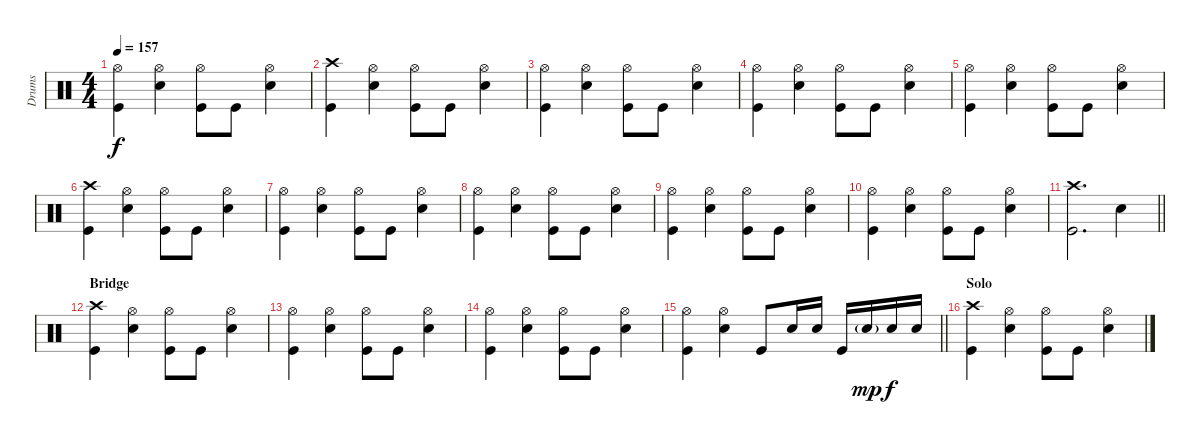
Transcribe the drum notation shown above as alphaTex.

\track ("Drums" "Drums") {instrument percussion}
\staff {score}
\articulation defaults
\ts (4 4)
\tempo 157
\clef neutral
\ks c
("Hi-Hat (open)" "Kick (hit)").4{dy f} ("Hi-Hat (open)" "Snare (hit) 2").4 ("Hi-Hat (open)" "Kick (hit)").8 "Kick (hit)".8 ("Hi-Hat (open)" "Snare (hit) 2").4 |
("Crash high (hit)" "Kick (hit)").4 ("Hi-Hat (open)" "Snare (hit) 2").4 ("Hi-Hat (open)" "Kick (hit)").8 "Kick (hit)".8 ("Hi-Hat (open)" "Snare (hit) 2").4 |
("Hi-Hat (open)" "Kick (hit)").4 ("Hi-Hat (open)" "Snare (hit) 2").4 ("Hi-Hat (open)" "Kick (hit)").8 "Kick (hit)".8 ("Hi-Hat (open)" "Snare (hit) 2").4 |
("Hi-Hat (open)" "Kick (hit)").4 ("Hi-Hat (open)" "Snare (hit) 2").4 ("Hi-Hat (open)" "Kick (hit)").8 "Kick (hit)".8 ("Hi-Hat (open)" "Snare (hit) 2").4 |
("Hi-Hat (open)" "Kick (hit)").4 ("Hi-Hat (open)" "Snare (hit) 2").4 ("Hi-Hat (open)" "Kick (hit)").8 "Kick (hit)".8 ("Hi-Hat (open)" "Snare (hit) 2").4 |
("Crash high (hit)" "Kick (hit)").4 ("Hi-Hat (open)" "Snare (hit) 2").4 ("Hi-Hat (open)" "Kick (hit)").8 "Kick (hit)".8 ("Hi-Hat (open)" "Snare (hit) 2").4 |
("Hi-Hat (open)" "Kick (hit)").4 ("Hi-Hat (open)" "Snare (hit) 2").4 ("Hi-Hat (open)" "Kick (hit)").8 "Kick (hit)".8 ("Hi-Hat (open)" "Snare (hit) 2").4 |
("Hi-Hat (open)" "Kick (hit)").4 ("Hi-Hat (open)" "Snare (hit) 2").4 ("Hi-Hat (open)" "Kick (hit)").8 "Kick (hit)".8 ("Hi-Hat (open)" "Snare (hit) 2").4 |
("Hi-Hat (open)" "Kick (hit)").4 ("Hi-Hat (open)" "Snare (hit) 2").4 ("Hi-Hat (open)" "Kick (hit)").8 "Kick (hit)".8 ("Hi-Hat (open)" "Snare (hit) 2").4 |
("Hi-Hat (open)" "Kick (hit)").4 ("Hi-Hat (open)" "Snare (hit) 2").4 ("Hi-Hat (open)" "Kick (hit)").8 "Kick (hit)".8 ("Hi-Hat (open)" "Snare (hit) 2").4 |
\barLineRight lightlight
("Crash high (hit)" "Kick (hit)").2{d} "Snare (hit) 2".4 |
\section ("" "Bridge")
("Crash high (hit)" "Kick (hit)").4 ("Hi-Hat (open)" "Snare (hit) 2").4 ("Hi-Hat (open)" "Kick (hit)").8 "Kick (hit)".8 ("Hi-Hat (open)" "Snare (hit) 2").4 |
("Hi-Hat (open)" "Kick (hit)").4 ("Hi-Hat (open)" "Snare (hit) 2").4 ("Hi-Hat (open)" "Kick (hit)").8 "Kick (hit)".8 ("Hi-Hat (open)" "Snare (hit) 2").4 |
("Hi-Hat (open)" "Kick (hit)").4 ("Hi-Hat (open)" "Snare (hit) 2").4 ("Hi-Hat (open)" "Kick (hit)").8 "Kick (hit)".8 ("Hi-Hat (open)" "Snare (hit) 2").4 |
\barLineRight lightlight
("Hi-Hat (open)" "Kick (hit)").4 ("Hi-Hat (open)" "Snare (hit) 2").4 "Kick (hit)".8 "Snare (hit) 2".16 "Snare (hit) 2".16 "Kick (hit)".16 "Snare (hit) 2"{g}.16{dy mp} "Snare (hit) 2".16{dy f} "Snare (hit) 2".16 |
\section ("" "Solo")
("Crash high (hit)" "Kick (hit)").4 ("Hi-Hat (open)" "Snare (hit) 2").4 ("Hi-Hat (open)" "Kick (hit)").8 "Kick (hit)".8 ("Hi-Hat (open)" "Snare (hit) 2").4
